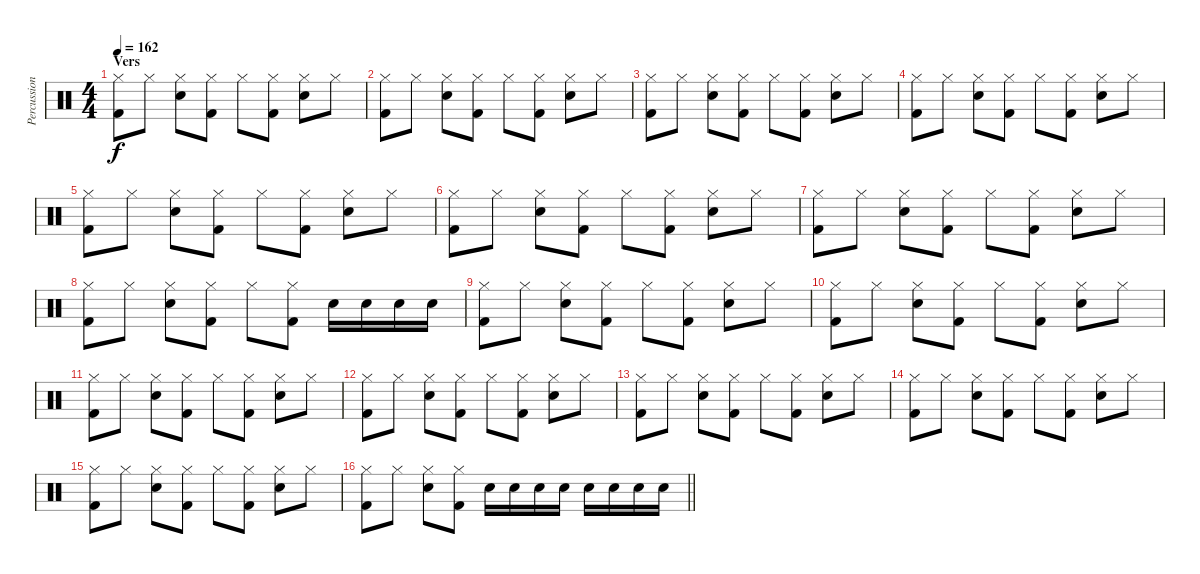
\track ("Percussions" "Percussion") {instrument percussion}
\staff {score}
\articulation defaults
\ts (4 4)
\section ("" "Vers")
\tempo 162
\clef neutral
\ks c
("Hi-Hat (closed)" "Kick (hit) 2").8{dy f} "Hi-Hat (closed)".8 ("Snare (hit) 2" "Hi-Hat (closed)").8 ("Hi-Hat (closed)" "Kick (hit) 2").8 "Hi-Hat (closed)".8 ("Hi-Hat (closed)" "Kick (hit) 2").8 ("Snare (hit) 2" "Hi-Hat (closed)").8 "Hi-Hat (closed)".8 |
("Hi-Hat (closed)" "Kick (hit) 2").8 "Hi-Hat (closed)".8 ("Snare (hit) 2" "Hi-Hat (closed)").8 ("Hi-Hat (closed)" "Kick (hit) 2").8 "Hi-Hat (closed)".8 ("Hi-Hat (closed)" "Kick (hit) 2").8 ("Snare (hit) 2" "Hi-Hat (closed)").8 "Hi-Hat (closed)".8 |
("Hi-Hat (closed)" "Kick (hit) 2").8 "Hi-Hat (closed)".8 ("Snare (hit) 2" "Hi-Hat (closed)").8 ("Hi-Hat (closed)" "Kick (hit) 2").8 "Hi-Hat (closed)".8 ("Hi-Hat (closed)" "Kick (hit) 2").8 ("Snare (hit) 2" "Hi-Hat (closed)").8 "Hi-Hat (closed)".8 |
("Hi-Hat (closed)" "Kick (hit) 2").8 "Hi-Hat (closed)".8 ("Snare (hit) 2" "Hi-Hat (closed)").8 ("Hi-Hat (closed)" "Kick (hit) 2").8 "Hi-Hat (closed)".8 ("Hi-Hat (closed)" "Kick (hit) 2").8 ("Snare (hit) 2" "Hi-Hat (closed)").8 "Hi-Hat (closed)".8 |
("Hi-Hat (closed)" "Kick (hit) 2").8 "Hi-Hat (closed)".8 ("Snare (hit) 2" "Hi-Hat (closed)").8 ("Hi-Hat (closed)" "Kick (hit) 2").8 "Hi-Hat (closed)".8 ("Hi-Hat (closed)" "Kick (hit) 2").8 ("Snare (hit) 2" "Hi-Hat (closed)").8 "Hi-Hat (closed)".8 |
("Hi-Hat (closed)" "Kick (hit) 2").8 "Hi-Hat (closed)".8 ("Snare (hit) 2" "Hi-Hat (closed)").8 ("Hi-Hat (closed)" "Kick (hit) 2").8 "Hi-Hat (closed)".8 ("Hi-Hat (closed)" "Kick (hit) 2").8 ("Snare (hit) 2" "Hi-Hat (closed)").8 "Hi-Hat (closed)".8 |
("Hi-Hat (closed)" "Kick (hit) 2").8 "Hi-Hat (closed)".8 ("Snare (hit) 2" "Hi-Hat (closed)").8 ("Hi-Hat (closed)" "Kick (hit) 2").8 "Hi-Hat (closed)".8 ("Hi-Hat (closed)" "Kick (hit) 2").8 ("Snare (hit) 2" "Hi-Hat (closed)").8 "Hi-Hat (closed)".8 |
("Hi-Hat (closed)" "Kick (hit) 2").8 "Hi-Hat (closed)".8 ("Snare (hit) 2" "Hi-Hat (closed)").8 ("Hi-Hat (closed)" "Kick (hit) 2").8 "Hi-Hat (closed)".8 ("Hi-Hat (closed)" "Kick (hit) 2").8 "Electric Snare (hit)".16 "Electric Snare (hit)".16 "Electric Snare (hit)".16 "Electric Snare (hit)".16 |
("Hi-Hat (closed)" "Kick (hit) 2").8 "Hi-Hat (closed)".8 ("Snare (hit) 2" "Hi-Hat (closed)").8 ("Hi-Hat (closed)" "Kick (hit) 2").8 "Hi-Hat (closed)".8 ("Hi-Hat (closed)" "Kick (hit) 2").8 ("Snare (hit) 2" "Hi-Hat (closed)").8 "Hi-Hat (closed)".8 |
("Hi-Hat (closed)" "Kick (hit) 2").8 "Hi-Hat (closed)".8 ("Snare (hit) 2" "Hi-Hat (closed)").8 ("Hi-Hat (closed)" "Kick (hit) 2").8 "Hi-Hat (closed)".8 ("Hi-Hat (closed)" "Kick (hit) 2").8 ("Snare (hit) 2" "Hi-Hat (closed)").8 "Hi-Hat (closed)".8 |
("Hi-Hat (closed)" "Kick (hit) 2").8 "Hi-Hat (closed)".8 ("Snare (hit) 2" "Hi-Hat (closed)").8 ("Hi-Hat (closed)" "Kick (hit) 2").8 "Hi-Hat (closed)".8 ("Hi-Hat (closed)" "Kick (hit) 2").8 ("Snare (hit) 2" "Hi-Hat (closed)").8 "Hi-Hat (closed)".8 |
("Hi-Hat (closed)" "Kick (hit) 2").8 "Hi-Hat (closed)".8 ("Snare (hit) 2" "Hi-Hat (closed)").8 ("Hi-Hat (closed)" "Kick (hit) 2").8 "Hi-Hat (closed)".8 ("Hi-Hat (closed)" "Kick (hit) 2").8 ("Snare (hit) 2" "Hi-Hat (closed)").8 "Hi-Hat (closed)".8 |
("Hi-Hat (closed)" "Kick (hit) 2").8 "Hi-Hat (closed)".8 ("Snare (hit) 2" "Hi-Hat (closed)").8 ("Hi-Hat (closed)" "Kick (hit) 2").8 "Hi-Hat (closed)".8 ("Hi-Hat (closed)" "Kick (hit) 2").8 ("Snare (hit) 2" "Hi-Hat (closed)").8 "Hi-Hat (closed)".8 |
("Hi-Hat (closed)" "Kick (hit) 2").8 "Hi-Hat (closed)".8 ("Snare (hit) 2" "Hi-Hat (closed)").8 ("Hi-Hat (closed)" "Kick (hit) 2").8 "Hi-Hat (closed)".8 ("Hi-Hat (closed)" "Kick (hit) 2").8 ("Snare (hit) 2" "Hi-Hat (closed)").8 "Hi-Hat (closed)".8 |
("Hi-Hat (closed)" "Kick (hit) 2").8 "Hi-Hat (closed)".8 ("Snare (hit) 2" "Hi-Hat (closed)").8 ("Hi-Hat (closed)" "Kick (hit) 2").8 "Hi-Hat (closed)".8 ("Hi-Hat (closed)" "Kick (hit) 2").8 ("Snare (hit) 2" "Hi-Hat (closed)").8 "Hi-Hat (closed)".8 |
\barLineRight lightlight
("Hi-Hat (closed)" "Kick (hit) 2").8 "Hi-Hat (closed)".8 ("Snare (hit) 2" "Hi-Hat (closed)").8 ("Hi-Hat (closed)" "Kick (hit) 2").8 "Electric Snare (hit)".16 "Electric Snare (hit)".16 "Electric Snare (hit)".16 "Electric Snare (hit)".16 "Snare (hit) 2".16 "Snare (hit) 2".16 "Snare (hit) 2".16 "Snare (hit) 2".16
